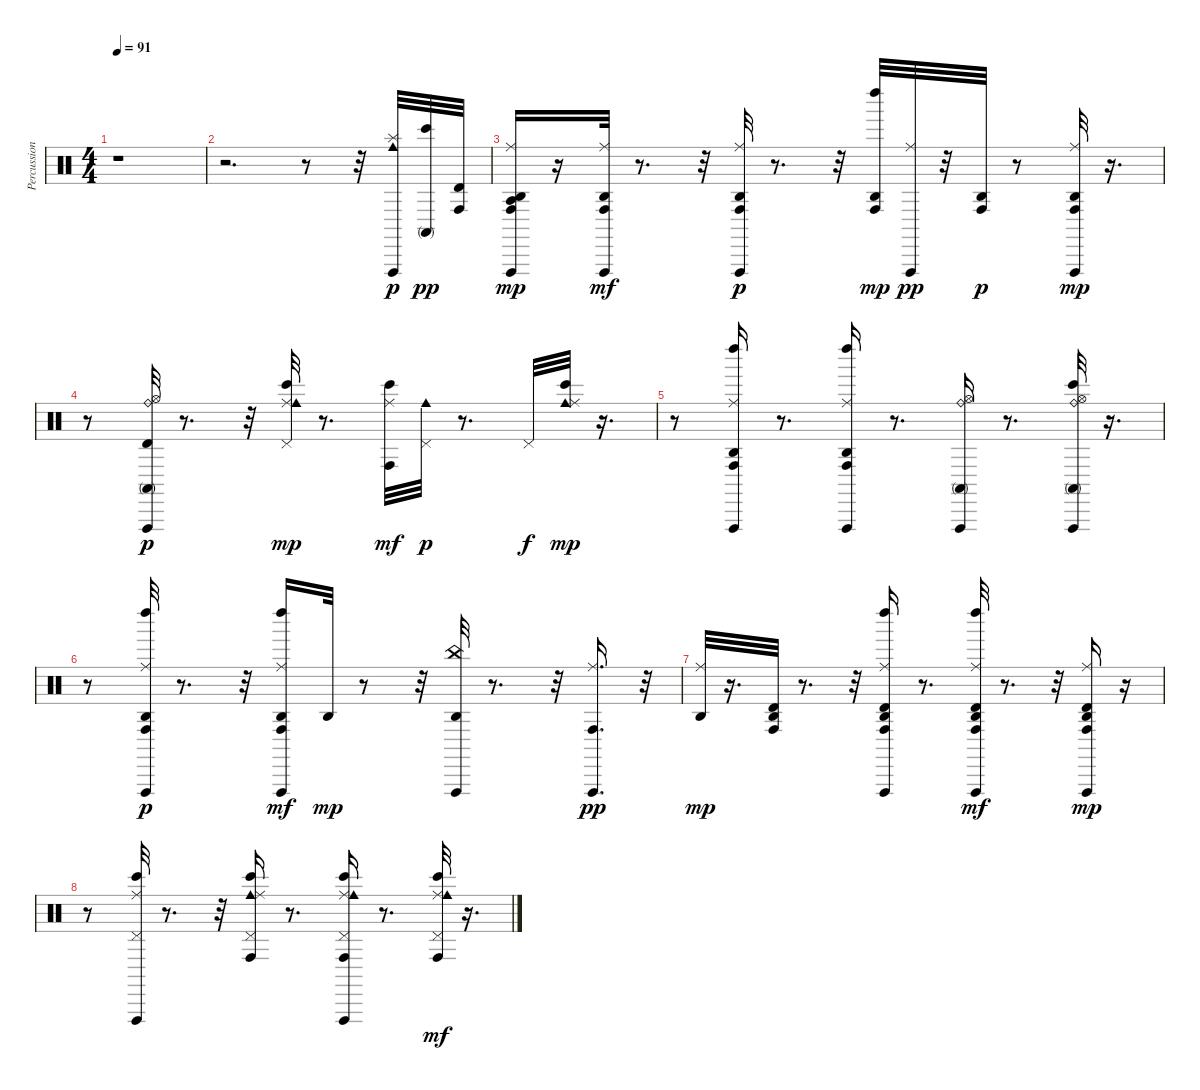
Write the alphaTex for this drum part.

\track ("Percussion Organ" "Percussion") {instrument percussion}
\staff {score}
\articulation defaults
\ts (4 4)
\tempo 91
\clef neutral
\ks c
r.1{dy p} |
r.2{d} r.8 r.32 ("Splash (hit)" "Cowbell medium (hit)" "Vibraslap (hit)").32{volume 16} ("Bongo High (hit)" "Conga high (mute)").32{dy pp} ("Conga high (hit)" "Timbale high (hit)").32 |
("Agogo high (hit)" "Agogo tow (hit)" "Ride (middle)" "Conga high (hit)" "Vibraslap (hit)").16{dy mp} r.16 ("Agogo high (hit)" "Conga high (hit)" "Vibraslap (hit)" "Ride (middle)").32{dy mf} r.8{d} r.32 ("Ride (middle)" "Conga high (hit)" "Agogo high (hit)" "Vibraslap (hit)").32{dy p} r.8{d} r.32 ("Left Maraca (hit)" "Agogo high (hit)" "Conga high (hit)").32{dy mp} ("Vibraslap (hit)" "Ride (middle)").32{dy pp} r.32 ("Agogo high (hit)" "Conga high (hit)").32{dy p} r.8 ("Agogo high (hit)" "Conga high (hit)" "Vibraslap (hit)" "Ride (middle)").32{dy mp} r.16{d} |
r.8 ("Conga high (mute)" "Vibraslap (hit)" "Timbale high (hit)" "Hi-Hat (open)" "Ride (bell)").32{dy p} r.8{d} r.32 ("Pedal Hi-Hat (hit)" "Bongo High (hit)" "Ride (middle)" "Cowbell medium (hit)").32{dy mp} r.8{d} ("Ride (middle)" "Conga high (hit)" "Bongo High (hit)").32{dy mf} ("Cowbell medium (hit)" "Pedal Hi-Hat (hit)").32{dy p} r.8{d} "Pedal Hi-Hat (hit)".32{dy f} ("Bongo High (hit)" "Cowbell medium (hit)" "Ride (middle)").32{dy mp} r.16{d} |
r.8 ("Vibraslap (hit)" "Ride (middle)" "Agogo high (hit)" "Left Maraca (hit)" "Conga high (hit)").16 r.8{d} ("Left Maraca (hit)" "Agogo high (hit)" "Conga high (hit)" "Ride (middle)" "Vibraslap (hit)").16 r.8{d} ("Vibraslap (hit)" "Hi-Hat (open)" "Conga high (mute)" "Ride (bell)").16 r.8{d} ("Ride (bell)" "Conga high (mute)" "Vibraslap (hit)" "Hi-Hat (open)" "Bongo High (hit)").32 r.16{d} |
r.8 ("Vibraslap (hit)" "Agogo high (hit)" "Conga high (hit)" "Left Maraca (hit)" "Ride (middle)").32{dy p} r.8{d} r.32 ("Vibraslap (hit)" "Left Maraca (hit)" "Ride (middle)" "Agogo high (hit)" "Conga high (hit)").16{dy mf} "Agogo high (hit)".32{dy mp} r.8 r.32 ("China (hit)" "Agogo high (hit)" "Vibraslap (hit)").32 r.8{d} r.32 ("Conga high (hit)" "Vibraslap (hit)" "Ride (middle)").16{d dy pp} r.32 |
("Ride (middle)" "Agogo high (hit)").32{dy mp} r.16{d} ("Agogo high (hit)" "Conga high (hit)" "Timbale high (hit)").32 r.8{d} r.32 ("Left Maraca (hit)" "Agogo high (hit)" "Ride (middle)" "Vibraslap (hit)" "Timbale high (hit)" "Conga high (hit)").16 r.8{d} ("Vibraslap (hit)" "Left Maraca (hit)" "Agogo high (hit)" "Timbale high (hit)" "Ride (middle)" "Conga high (hit)").32{dy mf} r.8{d} r.32 ("Ride (middle)" "Timbale high (hit)" "Agogo high (hit)" "Conga high (hit)" "Vibraslap (hit)").16{dy mp} r.16 |
r.8 ("Bongo High (hit)" "Vibraslap (hit)" "Ride (middle)" "Pedal Hi-Hat (hit)").32 r.8{d} r.32 ("Conga high (hit)" "Bongo High (hit)" "Cowbell medium (hit)" "Pedal Hi-Hat (hit)" "Ride (middle)").16 r.8{d} ("Pedal Hi-Hat (hit)" "Ride (middle)" "Bongo High (hit)" "Conga high (hit)" "Cowbell medium (hit)" "Vibraslap (hit)").16 r.8{d} ("Ride (middle)" "Pedal Hi-Hat (hit)" "Conga high (hit)" "Bongo High (hit)" "Cowbell medium (hit)").32{dy mf} r.16{d}
